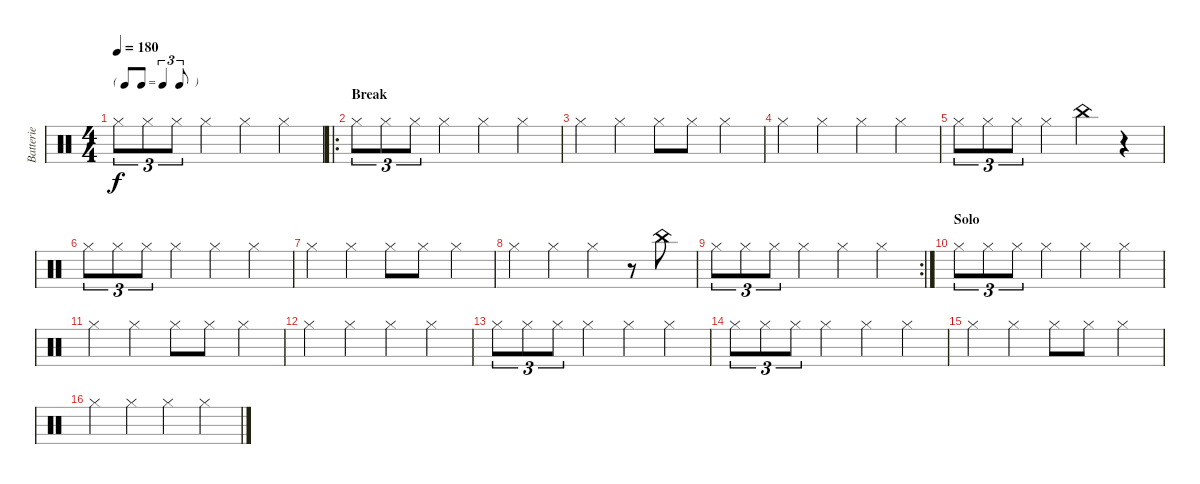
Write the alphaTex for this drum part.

\track ("Batterie" "Batterie") {instrument percussion}
\staff {score}
\articulation defaults
\ts (4 4)
\tf triplet8th
\tempo 180
\clef neutral
\ks c "Hi-Hat (closed)".8{tu (3 2) dy f} "Hi-Hat (closed)".8{tu (3 2)} "Hi-Hat (closed)".8{tu (3 2)} "Hi-Hat (closed)".4 "Hi-Hat (closed)".4 "Hi-Hat (closed)".4
|
\ro
\section ("" "Break")
"Hi-Hat (closed)".8{tu (3 2)} "Hi-Hat (closed)".8{tu (3 2)} "Hi-Hat (closed)".8{tu (3 2)} "Hi-Hat (closed)".4 "Hi-Hat (closed)".4 "Hi-Hat (closed)".4 |
"Hi-Hat (closed)".4 "Hi-Hat (closed)".4 "Hi-Hat (closed)".8 "Hi-Hat (closed)".8 "Hi-Hat (closed)".4 |
"Hi-Hat (closed)".4 "Hi-Hat (closed)".4 "Hi-Hat (closed)".4 "Hi-Hat (closed)".4 |
"Hi-Hat (closed)".8{tu (3 2)} "Hi-Hat (closed)".8{tu (3 2)} "Hi-Hat (closed)".8{tu (3 2)} "Hi-Hat (closed)".4 "China (hit)".4 r.4 |
"Hi-Hat (closed)".8{tu (3 2)} "Hi-Hat (closed)".8{tu (3 2)} "Hi-Hat (closed)".8{tu (3 2)} "Hi-Hat (closed)".4 "Hi-Hat (closed)".4 "Hi-Hat (closed)".4 |
"Hi-Hat (closed)".4 "Hi-Hat (closed)".4 "Hi-Hat (closed)".8 "Hi-Hat (closed)".8 "Hi-Hat (closed)".4 |
"Hi-Hat (closed)".4 "Hi-Hat (closed)".4 "Hi-Hat (closed)".4 r.8 "China (hit)".8 |
\rc 2 "Hi-Hat (closed)".8{tu (3 2)} "Hi-Hat (closed)".8{tu (3 2)} "Hi-Hat (closed)".8{tu (3 2)} "Hi-Hat (closed)".4 "Hi-Hat (closed)".4 "Hi-Hat (closed)".4
|
\section ("" "Solo")
"Hi-Hat (closed)".8{tu (3 2)} "Hi-Hat (closed)".8{tu (3 2)} "Hi-Hat (closed)".8{tu (3 2)} "Hi-Hat (closed)".4 "Hi-Hat (closed)".4 "Hi-Hat (closed)".4 |
"Hi-Hat (closed)".4 "Hi-Hat (closed)".4 "Hi-Hat (closed)".8 "Hi-Hat (closed)".8 "Hi-Hat (closed)".4 |
"Hi-Hat (closed)".4 "Hi-Hat (closed)".4 "Hi-Hat (closed)".4 "Hi-Hat (closed)".4 |
"Hi-Hat (closed)".8{tu (3 2)} "Hi-Hat (closed)".8{tu (3 2)} "Hi-Hat (closed)".8{tu (3 2)} "Hi-Hat (closed)".4 "Hi-Hat (closed)".4 "Hi-Hat (closed)".4 |
"Hi-Hat (closed)".8{tu (3 2)} "Hi-Hat (closed)".8{tu (3 2)} "Hi-Hat (closed)".8{tu (3 2)} "Hi-Hat (closed)".4 "Hi-Hat (closed)".4 "Hi-Hat (closed)".4 |
"Hi-Hat (closed)".4 "Hi-Hat (closed)".4 "Hi-Hat (closed)".8 "Hi-Hat (closed)".8 "Hi-Hat (closed)".4 |
"Hi-Hat (closed)".4 "Hi-Hat (closed)".4 "Hi-Hat (closed)".4 "Hi-Hat (closed)".4
